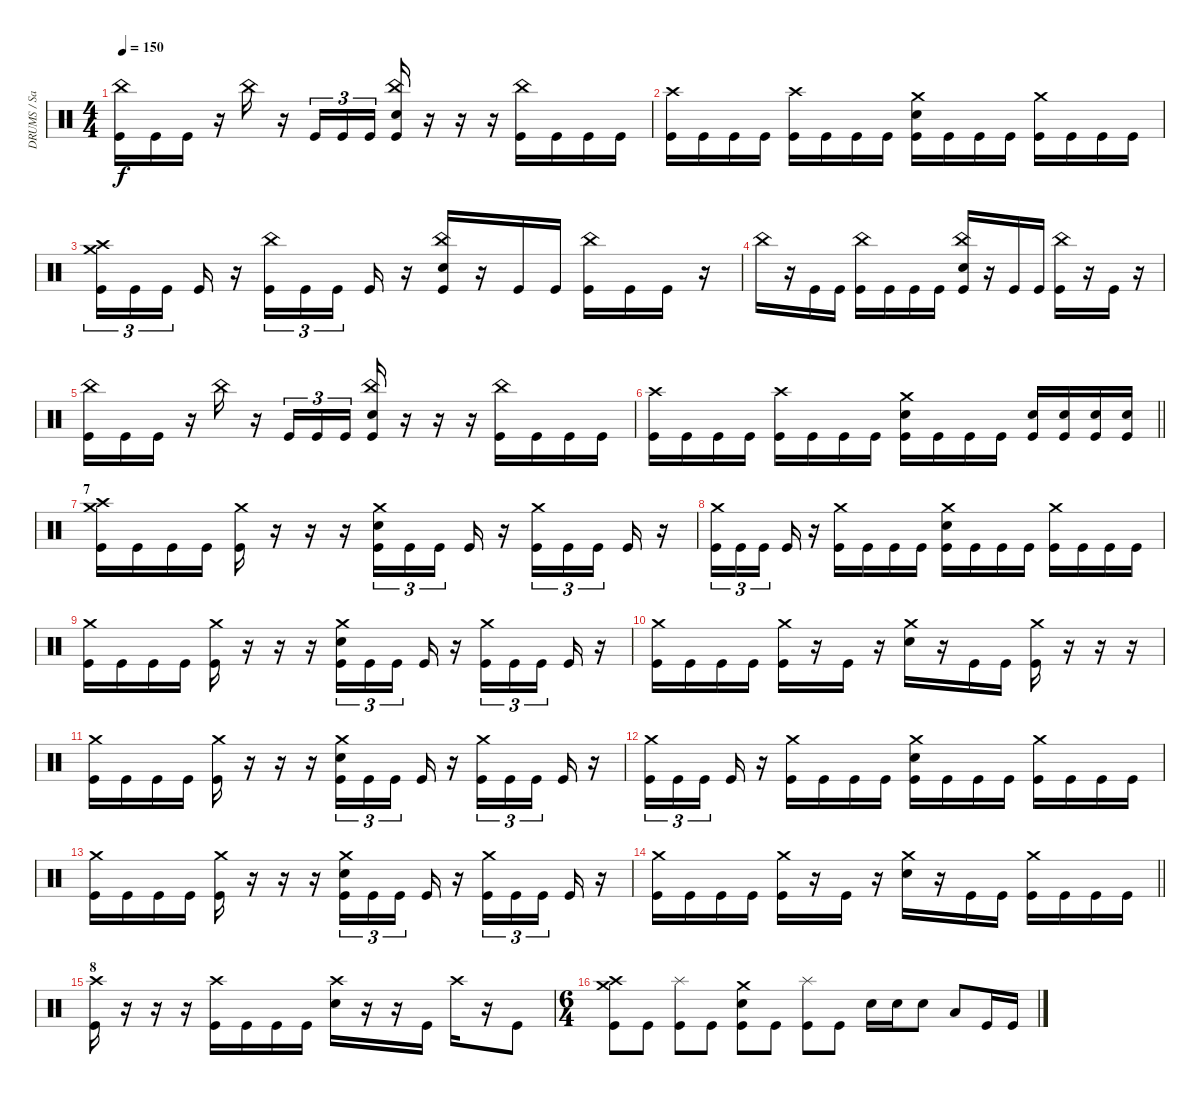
\track ("DRUMS / Sasha" "DRUMS / Sa") {instrument percussion}
\staff {score}
\articulation defaults
\ts (4 4)
\tempo 150
\clef neutral
\ks c
("Kick (hit)" "China (hit)").16{dy f} "Kick (hit)".16 "Kick (hit)".16 r.16 "China (hit)".16 r.16 "Kick (hit)".16{tu (3 2)} "Kick (hit)".16{tu (3 2)} "Kick (hit)".16{tu (3 2)} ("Kick (hit)" "China (hit)" "Snare (hit) 2").16 r.16 r.16 r.16 ("Kick (hit)" "China (hit)").16 "Kick (hit)".16 "Kick (hit)".16 "Kick (hit)".16 |
("Crash high (hit)" "Kick (hit)").16 "Kick (hit)".16 "Kick (hit)".16 "Kick (hit)".16 ("Crash high (hit)" "Kick (hit)").16 "Kick (hit)".16 "Kick (hit)".16 "Kick (hit)".16 ("Kick (hit)" "Crash medium (hit)" "Snare (hit) 2").16 "Kick (hit)".16 "Kick (hit)".16 "Kick (hit)".16 ("Kick (hit)" "Crash medium (hit)").16 "Kick (hit)".16 "Kick (hit)".16 "Kick (hit)".16 |
("Kick (hit)" "Crash medium (hit)" "Crash high (hit)").16{tu (3 2)} "Kick (hit)".16{tu (3 2)} "Kick (hit)".16{tu (3 2) beam splitsecondary} "Kick (hit)".16 r.16 ("Kick (hit)" "China (hit)").16{tu (3 2)} "Kick (hit)".16{tu (3 2)} "Kick (hit)".16{tu (3 2) beam splitsecondary} "Kick (hit)".16 r.16 ("Kick (hit)" "China (hit)" "Snare (hit) 2").16 r.16 "Kick (hit)".16 "Kick (hit)".16 ("Kick (hit)" "China (hit)").16 "Kick (hit)".16 "Kick (hit)".16 r.16 |
"China (hit)".16 r.16 "Kick (hit)".16 "Kick (hit)".16 ("Kick (hit)" "China (hit)").16 "Kick (hit)".16 "Kick (hit)".16 "Kick (hit)".16 ("Kick (hit)" "China (hit)" "Snare (hit) 2").16 r.16 "Kick (hit)".16 "Kick (hit)".16 ("Kick (hit)" "China (hit)").16 r.16 "Kick (hit)".16 r.16 |
("Kick (hit)" "China (hit)").16 "Kick (hit)".16 "Kick (hit)".16 r.16 "China (hit)".16 r.16 "Kick (hit)".16{tu (3 2)} "Kick (hit)".16{tu (3 2)} "Kick (hit)".16{tu (3 2)} ("Kick (hit)" "China (hit)" "Snare (hit) 2").16 r.16 r.16 r.16 ("Kick (hit)" "China (hit)").16 "Kick (hit)".16 "Kick (hit)".16 "Kick (hit)".16 |
\barLineRight lightlight
("Crash high (hit)" "Kick (hit)").16 "Kick (hit)".16 "Kick (hit)".16 "Kick (hit)".16 ("Crash high (hit)" "Kick (hit)").16 "Kick (hit)".16 "Kick (hit)".16 "Kick (hit)".16 ("Kick (hit)" "Crash medium (hit)" "Snare (hit) 2").16 "Kick (hit)".16 "Kick (hit)".16 "Kick (hit)".16 ("Snare (hit) 2" "Kick (hit)").16 ("Snare (hit) 2" "Kick (hit)").16 ("Snare (hit) 2" "Kick (hit)").16 ("Snare (hit) 2" "Kick (hit)").16 |
\section ("" "7")
("Kick (hit)" "Crash high (hit)" "Crash medium (hit)").16 "Kick (hit)".16 "Kick (hit)".16 "Kick (hit)".16 ("Kick (hit)" "Crash medium (hit)").16 r.16 r.16 r.16 ("Kick (hit)" "Crash medium (hit)" "Snare (hit) 2").16{tu (3 2)} "Kick (hit)".16{tu (3 2)} "Kick (hit)".16{tu (3 2) beam splitsecondary} "Kick (hit)".16 r.16 ("Kick (hit)" "Crash medium (hit)").16{tu (3 2)} "Kick (hit)".16{tu (3 2)} "Kick (hit)".16{tu (3 2) beam splitsecondary} "Kick (hit)".16 r.16 |
("Kick (hit)" "Crash medium (hit)").16{tu (3 2)} "Kick (hit)".16{tu (3 2)} "Kick (hit)".16{tu (3 2) beam splitsecondary} "Kick (hit)".16 r.16 ("Kick (hit)" "Crash medium (hit)").16 "Kick (hit)".16 "Kick (hit)".16 "Kick (hit)".16 ("Kick (hit)" "Crash medium (hit)" "Snare (hit) 2").16 "Kick (hit)".16 "Kick (hit)".16 "Kick (hit)".16 ("Kick (hit)" "Crash medium (hit)").16 "Kick (hit)".16 "Kick (hit)".16 "Kick (hit)".16 |
("Kick (hit)" "Crash medium (hit)").16 "Kick (hit)".16 "Kick (hit)".16 "Kick (hit)".16 ("Kick (hit)" "Crash medium (hit)").16 r.16 r.16 r.16 ("Kick (hit)" "Crash medium (hit)" "Snare (hit) 2").16{tu (3 2)} "Kick (hit)".16{tu (3 2)} "Kick (hit)".16{tu (3 2) beam splitsecondary} "Kick (hit)".16 r.16 ("Kick (hit)" "Crash medium (hit)").16{tu (3 2)} "Kick (hit)".16{tu (3 2)} "Kick (hit)".16{tu (3 2) beam splitsecondary} "Kick (hit)".16 r.16 |
("Kick (hit)" "Crash medium (hit)").16 "Kick (hit)".16 "Kick (hit)".16 "Kick (hit)".16 ("Kick (hit)" "Crash medium (hit)").16 r.16 "Kick (hit)".16 r.16 ("Crash medium (hit)" "Snare (hit) 2").16 r.16 "Kick (hit)".16 "Kick (hit)".16 ("Kick (hit)" "Crash medium (hit)").16 r.16 r.16 r.16 |
("Kick (hit)" "Crash medium (hit)").16 "Kick (hit)".16 "Kick (hit)".16 "Kick (hit)".16 ("Kick (hit)" "Crash medium (hit)").16 r.16 r.16 r.16 ("Kick (hit)" "Crash medium (hit)" "Snare (hit) 2").16{tu (3 2)} "Kick (hit)".16{tu (3 2)} "Kick (hit)".16{tu (3 2) beam splitsecondary} "Kick (hit)".16 r.16 ("Kick (hit)" "Crash medium (hit)").16{tu (3 2)} "Kick (hit)".16{tu (3 2)} "Kick (hit)".16{tu (3 2) beam splitsecondary} "Kick (hit)".16 r.16 |
("Kick (hit)" "Crash medium (hit)").16{tu (3 2)} "Kick (hit)".16{tu (3 2)} "Kick (hit)".16{tu (3 2) beam splitsecondary} "Kick (hit)".16 r.16 ("Kick (hit)" "Crash medium (hit)").16 "Kick (hit)".16 "Kick (hit)".16 "Kick (hit)".16 ("Kick (hit)" "Crash medium (hit)" "Snare (hit) 2").16 "Kick (hit)".16 "Kick (hit)".16 "Kick (hit)".16 ("Kick (hit)" "Crash medium (hit)").16 "Kick (hit)".16 "Kick (hit)".16 "Kick (hit)".16 |
("Kick (hit)" "Crash medium (hit)").16 "Kick (hit)".16 "Kick (hit)".16 "Kick (hit)".16 ("Kick (hit)" "Crash medium (hit)").16 r.16 r.16 r.16 ("Kick (hit)" "Crash medium (hit)" "Snare (hit) 2").16{tu (3 2)} "Kick (hit)".16{tu (3 2)} "Kick (hit)".16{tu (3 2) beam splitsecondary} "Kick (hit)".16 r.16 ("Kick (hit)" "Crash medium (hit)").16{tu (3 2)} "Kick (hit)".16{tu (3 2)} "Kick (hit)".16{tu (3 2) beam splitsecondary} "Kick (hit)".16 r.16 |
\barLineRight lightlight
("Kick (hit)" "Crash medium (hit)").16 "Kick (hit)".16 "Kick (hit)".16 "Kick (hit)".16 ("Kick (hit)" "Crash medium (hit)").16 r.16 "Kick (hit)".16 r.16 ("Crash medium (hit)" "Snare (hit) 2").16 r.16 "Kick (hit)".16 "Kick (hit)".16 ("Kick (hit)" "Crash medium (hit)").16 "Kick (hit)".16 "Kick (hit)".16 "Kick (hit)".16 |
\section ("" "8")
("Crash high (hit)" "Kick (hit)").16 r.16 r.16 r.16 ("Crash high (hit)" "Kick (hit)").16 "Kick (hit)".16 "Kick (hit)".16 "Kick (hit)".16 ("Crash high (hit)" "Snare (hit) 2").16 r.16 r.16 "Kick (hit)".16 "Crash high (hit)".16 r.16 "Kick (hit)".8 |
\ts (6 4)
("Kick (hit)" "Crash medium (hit)" "Crash high (hit)").8 "Kick (hit)".8 ("Kick (hit)" "Splash (hit)").8 "Kick (hit)".8 ("Snare (hit) 2" "Kick (hit)" "Crash medium (hit)").8 "Kick (hit)".8 ("Kick (hit)" "Splash (hit)").8 "Kick (hit)".8 "Snare (hit) 2".16 "Snare (hit) 2".16 "Snare (hit) 2".8 "Low Tom (hit)".8 "Kick (hit)".16 "Kick (hit)".16
